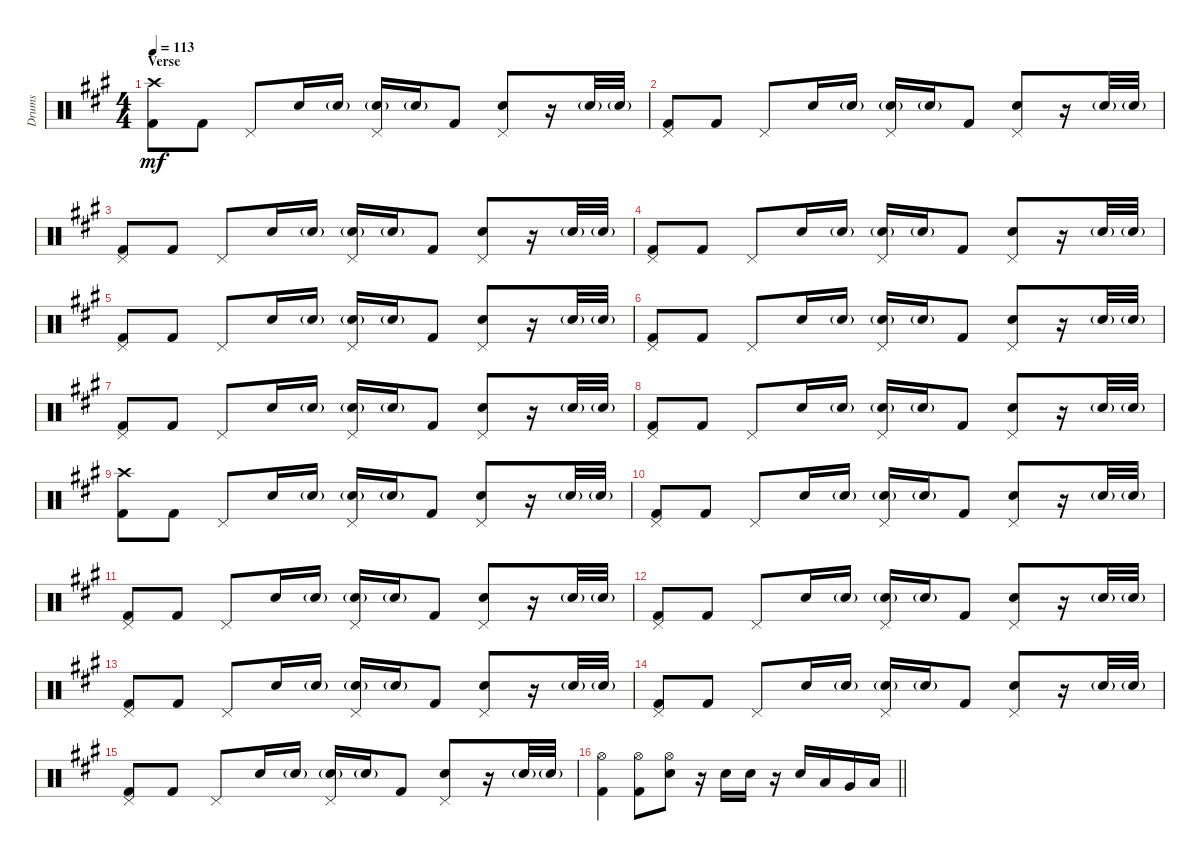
\track ("Drums" "Drums") {instrument percussion}
\staff {score}
\articulation defaults
\ts (4 4)
\section ("" "Verse")
\tempo 113
\clef neutral
\ks f#minor
("Crash high (hit)" "Kick (hit) 2").8{dy mf} "Kick (hit) 2".8 "Pedal Hi-Hat (hit)".8 "Snare (hit) 2".16 "Snare (hit) 2"{g}.16 ("Pedal Hi-Hat (hit)" "Snare (hit) 2"{g}).16 "Snare (hit) 2"{g}.16 "Kick (hit) 2".8 ("Pedal Hi-Hat (hit)" "Snare (hit) 2").8 r.16 "Snare (hit) 2"{g}.32 "Snare (hit) 2"{g}.32 |
("Pedal Hi-Hat (hit)" "Kick (hit) 2").8 "Kick (hit) 2".8 "Pedal Hi-Hat (hit)".8 "Snare (hit) 2".16 "Snare (hit) 2"{g}.16 ("Pedal Hi-Hat (hit)" "Snare (hit) 2"{g}).16 "Snare (hit) 2"{g}.16 "Kick (hit) 2".8 ("Pedal Hi-Hat (hit)" "Snare (hit) 2").8 r.16 "Snare (hit) 2"{g}.32 "Snare (hit) 2"{g}.32 |
("Pedal Hi-Hat (hit)" "Kick (hit) 2").8 "Kick (hit) 2".8 "Pedal Hi-Hat (hit)".8 "Snare (hit) 2".16 "Snare (hit) 2"{g}.16 ("Pedal Hi-Hat (hit)" "Snare (hit) 2"{g}).16 "Snare (hit) 2"{g}.16 "Kick (hit) 2".8 ("Pedal Hi-Hat (hit)" "Snare (hit) 2").8 r.16 "Snare (hit) 2"{g}.32 "Snare (hit) 2"{g}.32 |
("Pedal Hi-Hat (hit)" "Kick (hit) 2").8 "Kick (hit) 2".8 "Pedal Hi-Hat (hit)".8 "Snare (hit) 2".16 "Snare (hit) 2"{g}.16 ("Pedal Hi-Hat (hit)" "Snare (hit) 2"{g}).16 "Snare (hit) 2"{g}.16 "Kick (hit) 2".8 ("Pedal Hi-Hat (hit)" "Snare (hit) 2").8 r.16 "Snare (hit) 2"{g}.32 "Snare (hit) 2"{g}.32 |
("Pedal Hi-Hat (hit)" "Kick (hit) 2").8 "Kick (hit) 2".8 "Pedal Hi-Hat (hit)".8 "Snare (hit) 2".16 "Snare (hit) 2"{g}.16 ("Pedal Hi-Hat (hit)" "Snare (hit) 2"{g}).16 "Snare (hit) 2"{g}.16 "Kick (hit) 2".8 ("Pedal Hi-Hat (hit)" "Snare (hit) 2").8 r.16 "Snare (hit) 2"{g}.32 "Snare (hit) 2"{g}.32 |
("Pedal Hi-Hat (hit)" "Kick (hit) 2").8 "Kick (hit) 2".8 "Pedal Hi-Hat (hit)".8 "Snare (hit) 2".16 "Snare (hit) 2"{g}.16 ("Pedal Hi-Hat (hit)" "Snare (hit) 2"{g}).16 "Snare (hit) 2"{g}.16 "Kick (hit) 2".8 ("Pedal Hi-Hat (hit)" "Snare (hit) 2").8 r.16 "Snare (hit) 2"{g}.32 "Snare (hit) 2"{g}.32 |
("Pedal Hi-Hat (hit)" "Kick (hit) 2").8 "Kick (hit) 2".8 "Pedal Hi-Hat (hit)".8 "Snare (hit) 2".16 "Snare (hit) 2"{g}.16 ("Pedal Hi-Hat (hit)" "Snare (hit) 2"{g}).16 "Snare (hit) 2"{g}.16 "Kick (hit) 2".8 ("Pedal Hi-Hat (hit)" "Snare (hit) 2").8 r.16 "Snare (hit) 2"{g}.32 "Snare (hit) 2"{g}.32 |
("Pedal Hi-Hat (hit)" "Kick (hit) 2").8 "Kick (hit) 2".8 "Pedal Hi-Hat (hit)".8 "Snare (hit) 2".16 "Snare (hit) 2"{g}.16 ("Pedal Hi-Hat (hit)" "Snare (hit) 2"{g}).16 "Snare (hit) 2"{g}.16 "Kick (hit) 2".8 ("Pedal Hi-Hat (hit)" "Snare (hit) 2").8 r.16 "Snare (hit) 2"{g}.32 "Snare (hit) 2"{g}.32 |
("Crash high (hit)" "Kick (hit) 2").8 "Kick (hit) 2".8 "Pedal Hi-Hat (hit)".8 "Snare (hit) 2".16 "Snare (hit) 2"{g}.16 ("Pedal Hi-Hat (hit)" "Snare (hit) 2"{g}).16 "Snare (hit) 2"{g}.16 "Kick (hit) 2".8 ("Pedal Hi-Hat (hit)" "Snare (hit) 2").8 r.16 "Snare (hit) 2"{g}.32 "Snare (hit) 2"{g}.32 |
("Pedal Hi-Hat (hit)" "Kick (hit) 2").8 "Kick (hit) 2".8 "Pedal Hi-Hat (hit)".8 "Snare (hit) 2".16 "Snare (hit) 2"{g}.16 ("Pedal Hi-Hat (hit)" "Snare (hit) 2"{g}).16 "Snare (hit) 2"{g}.16 "Kick (hit) 2".8 ("Pedal Hi-Hat (hit)" "Snare (hit) 2").8 r.16 "Snare (hit) 2"{g}.32 "Snare (hit) 2"{g}.32 |
("Pedal Hi-Hat (hit)" "Kick (hit) 2").8 "Kick (hit) 2".8 "Pedal Hi-Hat (hit)".8 "Snare (hit) 2".16 "Snare (hit) 2"{g}.16 ("Pedal Hi-Hat (hit)" "Snare (hit) 2"{g}).16 "Snare (hit) 2"{g}.16 "Kick (hit) 2".8 ("Pedal Hi-Hat (hit)" "Snare (hit) 2").8 r.16 "Snare (hit) 2"{g}.32 "Snare (hit) 2"{g}.32 |
("Pedal Hi-Hat (hit)" "Kick (hit) 2").8 "Kick (hit) 2".8 "Pedal Hi-Hat (hit)".8 "Snare (hit) 2".16 "Snare (hit) 2"{g}.16 ("Pedal Hi-Hat (hit)" "Snare (hit) 2"{g}).16 "Snare (hit) 2"{g}.16 "Kick (hit) 2".8 ("Pedal Hi-Hat (hit)" "Snare (hit) 2").8 r.16 "Snare (hit) 2"{g}.32 "Snare (hit) 2"{g}.32 |
("Pedal Hi-Hat (hit)" "Kick (hit) 2").8 "Kick (hit) 2".8 "Pedal Hi-Hat (hit)".8 "Snare (hit) 2".16 "Snare (hit) 2"{g}.16 ("Pedal Hi-Hat (hit)" "Snare (hit) 2"{g}).16 "Snare (hit) 2"{g}.16 "Kick (hit) 2".8 ("Pedal Hi-Hat (hit)" "Snare (hit) 2").8 r.16 "Snare (hit) 2"{g}.32 "Snare (hit) 2"{g}.32 |
("Pedal Hi-Hat (hit)" "Kick (hit) 2").8 "Kick (hit) 2".8 "Pedal Hi-Hat (hit)".8 "Snare (hit) 2".16 "Snare (hit) 2"{g}.16 ("Pedal Hi-Hat (hit)" "Snare (hit) 2"{g}).16 "Snare (hit) 2"{g}.16 "Kick (hit) 2".8 ("Pedal Hi-Hat (hit)" "Snare (hit) 2").8 r.16 "Snare (hit) 2"{g}.32 "Snare (hit) 2"{g}.32 |
("Pedal Hi-Hat (hit)" "Kick (hit) 2").8 "Kick (hit) 2".8 "Pedal Hi-Hat (hit)".8 "Snare (hit) 2".16 "Snare (hit) 2"{g}.16 ("Pedal Hi-Hat (hit)" "Snare (hit) 2"{g}).16 "Snare (hit) 2"{g}.16 "Kick (hit) 2".8 ("Pedal Hi-Hat (hit)" "Snare (hit) 2").8 r.16 "Snare (hit) 2"{g}.32 "Snare (hit) 2"{g}.32 |
\barLineRight lightlight
("Hi-Hat (open)" "Kick (hit) 2").4 ("Hi-Hat (open)" "Kick (hit) 2").8 ("Hi-Hat (open)" "Snare (hit) 2").8 r.16 "Snare (hit) 2".16 "Snare (hit) 2".16 r.16 "Snare (hit) 2".16 "Low Tom (hit)".16 "Very Low Tom (hit)".16 "Low Floor Tom (hit)".16
